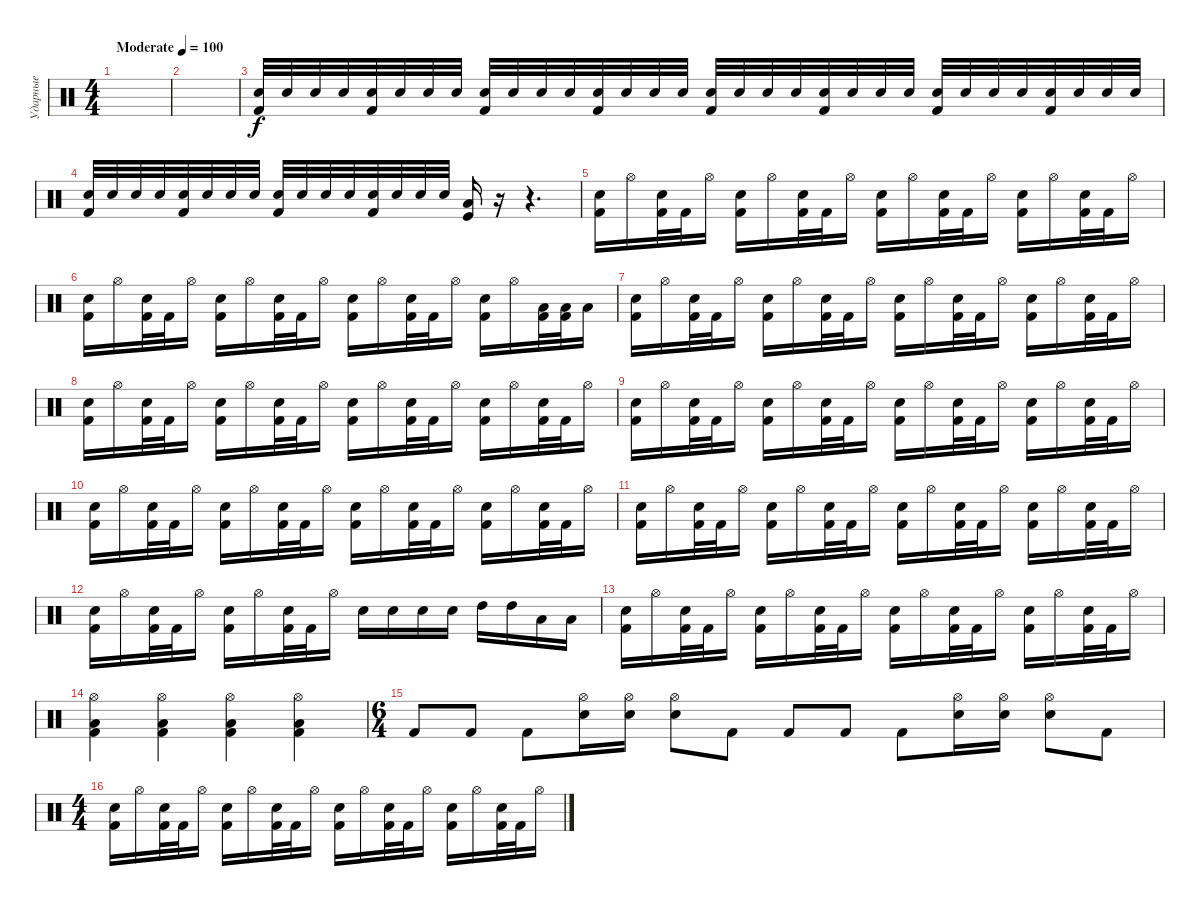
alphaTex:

\track ("Ударные" "Ударные") {instrument percussion}
\staff {score}
\articulation defaults
\ts (4 4)
\tempo (100 "Moderate")
\clef neutral
\ks c
|
|
("Snare (hit) 2" "Kick (hit) 2").32 "Snare (hit) 2".32 "Snare (hit) 2".32 "Snare (hit) 2".32 ("Snare (hit) 2" "Kick (hit) 2").32 "Snare (hit) 2".32 "Snare (hit) 2".32 "Snare (hit) 2".32 ("Snare (hit) 2" "Kick (hit) 2").32 "Snare (hit) 2".32 "Snare (hit) 2".32 "Snare (hit) 2".32 ("Snare (hit) 2" "Kick (hit) 2").32 "Snare (hit) 2".32 "Snare (hit) 2".32 "Snare (hit) 2".32 ("Snare (hit) 2" "Kick (hit) 2").32 "Snare (hit) 2".32 "Snare (hit) 2".32 "Snare (hit) 2".32 ("Snare (hit) 2" "Kick (hit) 2").32 "Snare (hit) 2".32 "Snare (hit) 2".32 "Snare (hit) 2".32 ("Snare (hit) 2" "Kick (hit) 2").32 "Snare (hit) 2".32 "Snare (hit) 2".32 "Snare (hit) 2".32 ("Snare (hit) 2" "Kick (hit) 2").32 "Snare (hit) 2".32 "Snare (hit) 2".32 "Snare (hit) 2".32 |
("Snare (hit) 2" "Kick (hit) 2").32 "Snare (hit) 2".32 "Snare (hit) 2".32 "Snare (hit) 2".32 ("Snare (hit) 2" "Kick (hit) 2").32 "Snare (hit) 2".32 "Snare (hit) 2".32 "Snare (hit) 2".32 ("Snare (hit) 2" "Kick (hit) 2").32 "Snare (hit) 2".32 "Snare (hit) 2".32 "Snare (hit) 2".32 ("Snare (hit) 2" "Kick (hit) 2").32 "Snare (hit) 2".32 "Snare (hit) 2".32 "Snare (hit) 2".32 ("Kick (hit)" "Low Floor Tom (hit)").16 r.16 r.4{d} |
("Snare (hit) 2" "Kick (hit) 2").16 "Hi-Hat (open)".16 ("Snare (hit) 2" "Kick (hit) 2").32 "Kick (hit) 2".32 "Hi-Hat (open)".16 ("Snare (hit) 2" "Kick (hit) 2").16 "Hi-Hat (open)".16 ("Snare (hit) 2" "Kick (hit) 2").32 "Kick (hit) 2".32 "Hi-Hat (open)".16 ("Snare (hit) 2" "Kick (hit) 2").16 "Hi-Hat (open)".16 ("Snare (hit) 2" "Kick (hit) 2").32 "Kick (hit) 2".32 "Hi-Hat (open)".16 ("Snare (hit) 2" "Kick (hit) 2").16 "Hi-Hat (open)".16 ("Snare (hit) 2" "Kick (hit) 2").32 "Kick (hit) 2".32 "Hi-Hat (open)".16 |
("Snare (hit) 2" "Kick (hit) 2").16 "Hi-Hat (open)".16 ("Snare (hit) 2" "Kick (hit) 2").32 "Kick (hit) 2".32 "Hi-Hat (open)".16 ("Snare (hit) 2" "Kick (hit) 2").16 "Hi-Hat (open)".16 ("Snare (hit) 2" "Kick (hit) 2").32 "Kick (hit) 2".32 "Hi-Hat (open)".16 ("Snare (hit) 2" "Kick (hit) 2").16 "Hi-Hat (open)".16 ("Snare (hit) 2" "Kick (hit) 2").32 "Kick (hit) 2".32 "Hi-Hat (open)".16 ("Snare (hit) 2" "Kick (hit) 2").16 "Hi-Hat (open)".16 ("Low Tom (hit)" "Kick (hit) 2").32 ("Low Tom (hit)" "Kick (hit) 2").32 "Low Tom (hit)".16 |
("Snare (hit) 2" "Kick (hit) 2").16 "Hi-Hat (open)".16 ("Snare (hit) 2" "Kick (hit) 2").32 "Kick (hit) 2".32 "Hi-Hat (open)".16 ("Snare (hit) 2" "Kick (hit) 2").16 "Hi-Hat (open)".16 ("Snare (hit) 2" "Kick (hit) 2").32 "Kick (hit) 2".32 "Hi-Hat (open)".16 ("Snare (hit) 2" "Kick (hit) 2").16 "Hi-Hat (open)".16 ("Snare (hit) 2" "Kick (hit) 2").32 "Kick (hit) 2".32 "Hi-Hat (open)".16 ("Snare (hit) 2" "Kick (hit) 2").16 "Hi-Hat (open)".16 ("Snare (hit) 2" "Kick (hit) 2").32 "Kick (hit) 2".32 "Hi-Hat (open)".16 |
("Snare (hit) 2" "Kick (hit) 2").16 "Hi-Hat (open)".16 ("Snare (hit) 2" "Kick (hit) 2").32 "Kick (hit) 2".32 "Hi-Hat (open)".16 ("Snare (hit) 2" "Kick (hit) 2").16 "Hi-Hat (open)".16 ("Snare (hit) 2" "Kick (hit) 2").32 "Kick (hit) 2".32 "Hi-Hat (open)".16 ("Snare (hit) 2" "Kick (hit) 2").16 "Hi-Hat (open)".16 ("Snare (hit) 2" "Kick (hit) 2").32 "Kick (hit) 2".32 "Hi-Hat (open)".16 ("Snare (hit) 2" "Kick (hit) 2").16 "Hi-Hat (open)".16 ("Snare (hit) 2" "Kick (hit) 2").32 "Kick (hit) 2".32 "Hi-Hat (open)".16 |
("Snare (hit) 2" "Kick (hit) 2").16 "Hi-Hat (open)".16 ("Snare (hit) 2" "Kick (hit) 2").32 "Kick (hit) 2".32 "Hi-Hat (open)".16 ("Snare (hit) 2" "Kick (hit) 2").16 "Hi-Hat (open)".16 ("Snare (hit) 2" "Kick (hit) 2").32 "Kick (hit) 2".32 "Hi-Hat (open)".16 ("Snare (hit) 2" "Kick (hit) 2").16 "Hi-Hat (open)".16 ("Snare (hit) 2" "Kick (hit) 2").32 "Kick (hit) 2".32 "Hi-Hat (open)".16 ("Snare (hit) 2" "Kick (hit) 2").16 "Hi-Hat (open)".16 ("Snare (hit) 2" "Kick (hit) 2").32 "Kick (hit) 2".32 "Hi-Hat (open)".16 |
("Snare (hit) 2" "Kick (hit) 2").16 "Hi-Hat (open)".16 ("Snare (hit) 2" "Kick (hit) 2").32 "Kick (hit) 2".32 "Hi-Hat (open)".16 ("Snare (hit) 2" "Kick (hit) 2").16 "Hi-Hat (open)".16 ("Snare (hit) 2" "Kick (hit) 2").32 "Kick (hit) 2".32 "Hi-Hat (open)".16 ("Snare (hit) 2" "Kick (hit) 2").16 "Hi-Hat (open)".16 ("Snare (hit) 2" "Kick (hit) 2").32 "Kick (hit) 2".32 "Hi-Hat (open)".16 ("Snare (hit) 2" "Kick (hit) 2").16 "Hi-Hat (open)".16 ("Snare (hit) 2" "Kick (hit) 2").32 "Kick (hit) 2".32 "Hi-Hat (open)".16 |
("Snare (hit) 2" "Kick (hit) 2").16 "Hi-Hat (open)".16 ("Snare (hit) 2" "Kick (hit) 2").32 "Kick (hit) 2".32 "Hi-Hat (open)".16 ("Snare (hit) 2" "Kick (hit) 2").16 "Hi-Hat (open)".16 ("Snare (hit) 2" "Kick (hit) 2").32 "Kick (hit) 2".32 "Hi-Hat (open)".16 ("Snare (hit) 2" "Kick (hit) 2").16 "Hi-Hat (open)".16 ("Snare (hit) 2" "Kick (hit) 2").32 "Kick (hit) 2".32 "Hi-Hat (open)".16 ("Snare (hit) 2" "Kick (hit) 2").16 "Hi-Hat (open)".16 ("Snare (hit) 2" "Kick (hit) 2").32 "Kick (hit) 2".32 "Hi-Hat (open)".16 |
("Snare (hit) 2" "Kick (hit) 2").16 "Hi-Hat (open)".16 ("Snare (hit) 2" "Kick (hit) 2").32 "Kick (hit) 2".32 "Hi-Hat (open)".16 ("Snare (hit) 2" "Kick (hit) 2").16 "Hi-Hat (open)".16 ("Snare (hit) 2" "Kick (hit) 2").32 "Kick (hit) 2".32 "Hi-Hat (open)".16 "Snare (hit) 2".16 "Snare (hit) 2".16 "Snare (hit) 2".16 "Snare (hit) 2".16 "High Tom (hit)".16 "High Tom (hit)".16 "Low Tom (hit)".16 "Low Tom (hit)".16 |
("Snare (hit) 2" "Kick (hit) 2").16 "Hi-Hat (open)".16 ("Snare (hit) 2" "Kick (hit) 2").32 "Kick (hit) 2".32 "Hi-Hat (open)".16 ("Snare (hit) 2" "Kick (hit) 2").16 "Hi-Hat (open)".16 ("Snare (hit) 2" "Kick (hit) 2").32 "Kick (hit) 2".32 "Hi-Hat (open)".16 ("Snare (hit) 2" "Kick (hit) 2").16 "Hi-Hat (open)".16 ("Snare (hit) 2" "Kick (hit) 2").32 "Kick (hit) 2".32 "Hi-Hat (open)".16 ("Snare (hit) 2" "Kick (hit) 2").16 "Hi-Hat (open)".16 ("Snare (hit) 2" "Kick (hit) 2").32 "Kick (hit) 2".32 "Hi-Hat (open)".16 |
("Hi-Hat (open)" "Low Floor Tom (hit)" "Kick (hit) 2").4 ("Hi-Hat (open)" "Low Floor Tom (hit)" "Kick (hit) 2").4 ("Hi-Hat (open)" "Low Floor Tom (hit)" "Kick (hit) 2").4 ("Hi-Hat (open)" "Low Floor Tom (hit)" "Kick (hit) 2").4 |
\ts (6 4)
"Kick (hit) 2".8 "Kick (hit) 2".8 "Kick (hit) 2".8 ("Hi-Hat (open)" "Snare (hit) 2").16 ("Hi-Hat (open)" "Snare (hit) 2").16 ("Hi-Hat (open)" "Snare (hit) 2").8 "Kick (hit) 2".8 "Kick (hit) 2".8 "Kick (hit) 2".8 "Kick (hit) 2".8 ("Hi-Hat (open)" "Snare (hit) 2").16 ("Hi-Hat (open)" "Snare (hit) 2").16 ("Hi-Hat (open)" "Snare (hit) 2").8 "Kick (hit) 2".8 |
\ts (4 4)
("Snare (hit) 2" "Kick (hit) 2").16 "Hi-Hat (open)".16 ("Snare (hit) 2" "Kick (hit) 2").32 "Kick (hit) 2".32 "Hi-Hat (open)".16 ("Snare (hit) 2" "Kick (hit) 2").16 "Hi-Hat (open)".16 ("Snare (hit) 2" "Kick (hit) 2").32 "Kick (hit) 2".32 "Hi-Hat (open)".16 ("Snare (hit) 2" "Kick (hit) 2").16 "Hi-Hat (open)".16 ("Snare (hit) 2" "Kick (hit) 2").32 "Kick (hit) 2".32 "Hi-Hat (open)".16 ("Snare (hit) 2" "Kick (hit) 2").16 "Hi-Hat (open)".16 ("Snare (hit) 2" "Kick (hit) 2").32 "Kick (hit) 2".32 "Hi-Hat (open)".16
